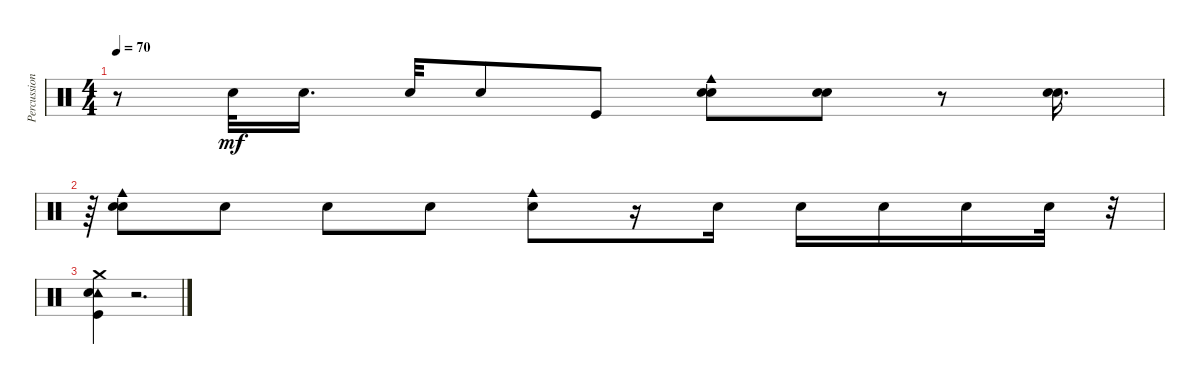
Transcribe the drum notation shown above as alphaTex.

\track ("Percussions" "Percussion") {instrument percussion}
\staff {score}
\articulation defaults
\ts (4 4)
\tempo 70
\clef neutral
\ks c
r.8{dy mf} "Electric Snare (hit)".32 "Electric Snare (hit)".16{d} "Electric Snare (hit)".32 "Electric Snare (hit)".8 "Kick (hit)".8 ("Electric Snare (hit)" "Cowbell medium (hit)" "Electric Snare (hit)").8 ("Electric Snare (hit)" "Electric Snare (hit)").8 r.8 ("Electric Snare (hit)" "Electric Snare (hit)").16{d} |
r.64{tu (3 2)} ("Electric Snare (hit)" "Cowbell medium (hit)" "Electric Snare (hit)").8 "Electric Snare (hit)".8 "Electric Snare (hit)".8 "Electric Snare (hit)".8 ("Cowbell medium (hit)" "Electric Snare (hit)").8 r.16 "Electric Snare (hit)".16 "Electric Snare (hit)".16 "Electric Snare (hit)".16 "Electric Snare (hit)".16 "Electric Snare (hit)".32 r.32{tu (3 2)} |
("Crash medium (hit)" "Kick (hit)" "Tambourine (hit)" "Electric Snare (hit)").4 r.2{d}
